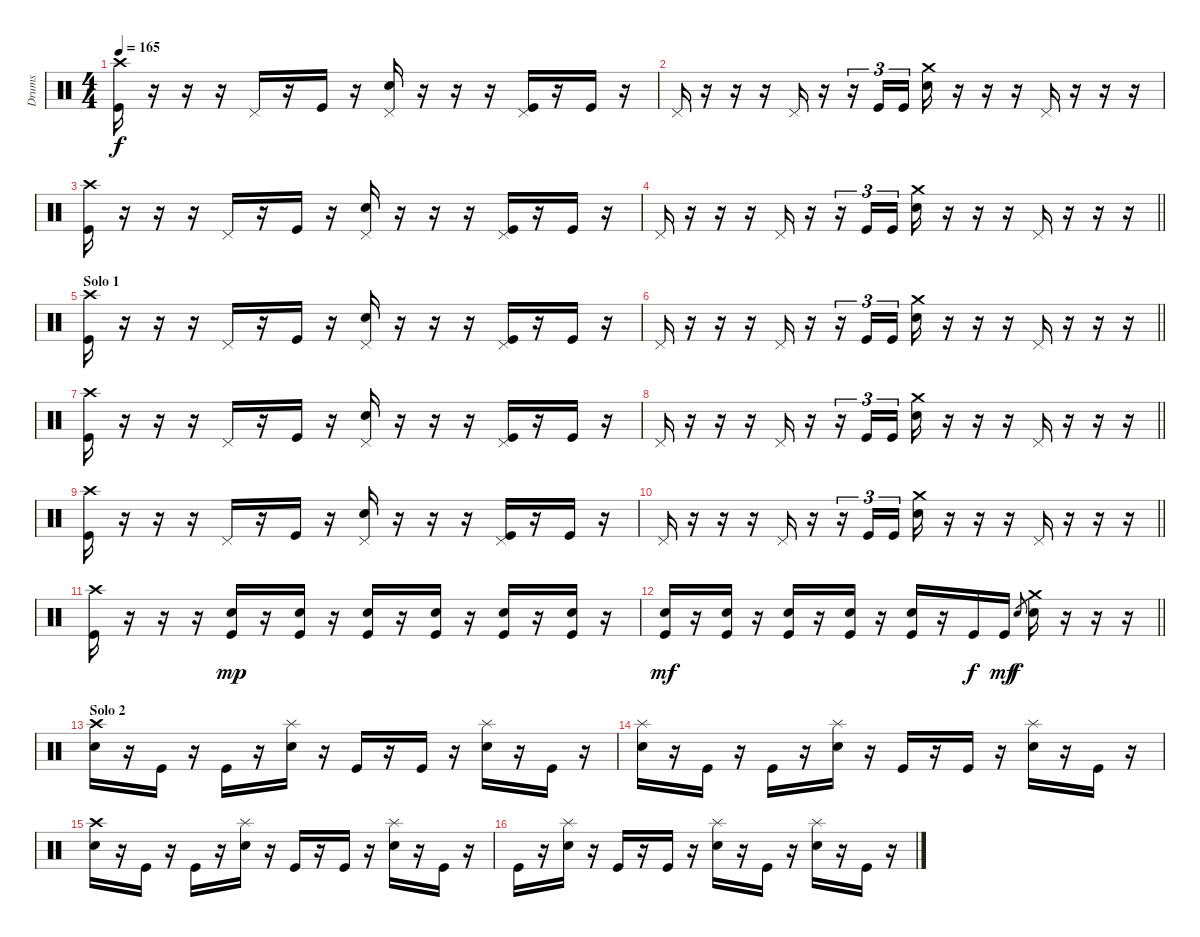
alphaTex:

\track ("Drums" "Drums") {instrument percussion}
\staff {score}
\articulation defaults
\ts (4 4)
\tempo 165
\clef neutral
\ks c
("Crash high (hit)" "Kick (hit)").16{dy f} r.16 r.16 r.16 "Pedal Hi-Hat (hit)".16 r.16 "Kick (hit)".16 r.16 ("Pedal Hi-Hat (hit)" "Electric Snare (hit)").16 r.16 r.16 r.16 ("Pedal Hi-Hat (hit)" "Kick (hit)").16 r.16 "Kick (hit)".16 r.16 |
"Pedal Hi-Hat (hit)".16 r.16 r.16 r.16 "Pedal Hi-Hat (hit)".16 r.16 r.16{tu (3 2)} "Kick (hit)".16{tu (3 2)} "Kick (hit)".16{tu (3 2)} ("Crash medium (hit)" "Electric Snare (hit)").16 r.16 r.16 r.16 "Pedal Hi-Hat (hit)".16 r.16 r.16 r.16 |
("Crash high (hit)" "Kick (hit)").16 r.16 r.16 r.16 "Pedal Hi-Hat (hit)".16 r.16 "Kick (hit)".16 r.16 ("Pedal Hi-Hat (hit)" "Electric Snare (hit)").16 r.16 r.16 r.16 ("Pedal Hi-Hat (hit)" "Kick (hit)").16 r.16 "Kick (hit)".16 r.16 |
\barLineRight lightlight "Pedal Hi-Hat (hit)".16
r.16 r.16 r.16 "Pedal Hi-Hat (hit)".16 r.16 r.16{tu (3 2)} "Kick (hit)".16{tu (3 2)} "Kick (hit)".16{tu (3 2)} ("Crash medium (hit)" "Electric Snare (hit)").16 r.16 r.16 r.16 "Pedal Hi-Hat (hit)".16 r.16 r.16 r.16 |
\section ("" "Solo 1")
("Crash high (hit)" "Kick (hit)").16 r.16 r.16 r.16 "Pedal Hi-Hat (hit)".16 r.16 "Kick (hit)".16 r.16 ("Pedal Hi-Hat (hit)" "Electric Snare (hit)").16 r.16 r.16 r.16 ("Pedal Hi-Hat (hit)" "Kick (hit)").16 r.16 "Kick (hit)".16 r.16 |
\barLineRight lightlight "Pedal Hi-Hat (hit)".16
r.16 r.16 r.16 "Pedal Hi-Hat (hit)".16 r.16 r.16{tu (3 2)} "Kick (hit)".16{tu (3 2)} "Kick (hit)".16{tu (3 2)} ("Crash medium (hit)" "Electric Snare (hit)").16 r.16 r.16 r.16 "Pedal Hi-Hat (hit)".16 r.16 r.16 r.16 |
("Crash high (hit)" "Kick (hit)").16 r.16 r.16 r.16 "Pedal Hi-Hat (hit)".16 r.16 "Kick (hit)".16 r.16 ("Pedal Hi-Hat (hit)" "Electric Snare (hit)").16 r.16 r.16 r.16 ("Pedal Hi-Hat (hit)" "Kick (hit)").16 r.16 "Kick (hit)".16 r.16 |
\barLineRight lightlight "Pedal Hi-Hat (hit)".16
r.16 r.16 r.16 "Pedal Hi-Hat (hit)".16 r.16 r.16{tu (3 2)} "Kick (hit)".16{tu (3 2)} "Kick (hit)".16{tu (3 2)} ("Crash medium (hit)" "Electric Snare (hit)").16 r.16 r.16 r.16 "Pedal Hi-Hat (hit)".16 r.16 r.16 r.16 |
("Crash high (hit)" "Kick (hit)").16 r.16 r.16 r.16 "Pedal Hi-Hat (hit)".16 r.16 "Kick (hit)".16 r.16 ("Pedal Hi-Hat (hit)" "Electric Snare (hit)").16 r.16 r.16 r.16 ("Pedal Hi-Hat (hit)" "Kick (hit)").16 r.16 "Kick (hit)".16 r.16 |
\barLineRight lightlight "Pedal Hi-Hat (hit)".16
r.16 r.16 r.16 "Pedal Hi-Hat (hit)".16 r.16 r.16{tu (3 2)} "Kick (hit)".16{tu (3 2)} "Kick (hit)".16{tu (3 2)} ("Crash medium (hit)" "Electric Snare (hit)").16 r.16 r.16 r.16 "Pedal Hi-Hat (hit)".16 r.16 r.16 r.16 |
("Crash high (hit)" "Kick (hit)").16 r.16 r.16 r.16 ("Electric Snare (hit)" "Kick (hit)").16{dy mp} r.16 ("Electric Snare (hit)" "Kick (hit)").16 r.16 ("Electric Snare (hit)" "Kick (hit)").16 r.16 ("Electric Snare (hit)" "Kick (hit)").16 r.16 ("Electric Snare (hit)" "Kick (hit)").16 r.16 ("Electric Snare (hit)" "Kick (hit)").16 r.16 |
\barLineRight lightlight
("Electric Snare (hit)" "Kick (hit)").16{dy mf} r.16 ("Electric Snare (hit)" "Kick (hit)").16 r.16 ("Electric Snare (hit)" "Kick (hit)").16 r.16 ("Electric Snare (hit)" "Kick (hit)").16 r.16 ("Electric Snare (hit)" "Kick (hit)").16 r.16 "Kick (hit)".16{dy f} "Kick (hit)".16{dy mf} "Electric Snare (hit)".8{gr dy f} ("Crash medium (hit)" "Electric Snare (hit)").16 r.16 r.16 r.16 |
\section ("" "Solo 2")
("Crash high (hit)" "Electric Snare (hit)").16 r.16 "Kick (hit)".16 r.16 "Kick (hit)".16 r.16 ("Splash (hit)" "Electric Snare (hit)").16 r.16 "Kick (hit)".16 r.16 "Kick (hit)".16 r.16 ("Splash (hit)" "Electric Snare (hit)").16 r.16 "Kick (hit)".16 r.16 |
("Splash (hit)" "Electric Snare (hit)").16 r.16 "Kick (hit)".16 r.16 "Kick (hit)".16 r.16 ("Splash (hit)" "Electric Snare (hit)").16 r.16 "Kick (hit)".16 r.16 "Kick (hit)".16 r.16 ("Splash (hit)" "Electric Snare (hit)").16 r.16 "Kick (hit)".16 r.16 |
("Crash high (hit)" "Electric Snare (hit)").16 r.16 "Kick (hit)".16 r.16 "Kick (hit)".16 r.16 ("Splash (hit)" "Electric Snare (hit)").16 r.16 "Kick (hit)".16 r.16 "Kick (hit)".16 r.16 ("Splash (hit)" "Electric Snare (hit)").16 r.16 "Kick (hit)".16 r.16 |
"Kick (hit)".16 r.16 ("Splash (hit)" "Electric Snare (hit)").16 r.16 "Kick (hit)".16 r.16 "Kick (hit)".16 r.16 ("Splash (hit)" "Electric Snare (hit)").16 r.16 "Kick (hit)".16 r.16 ("Splash (hit)" "Electric Snare (hit)").16 r.16 "Kick (hit)".16 r.16
